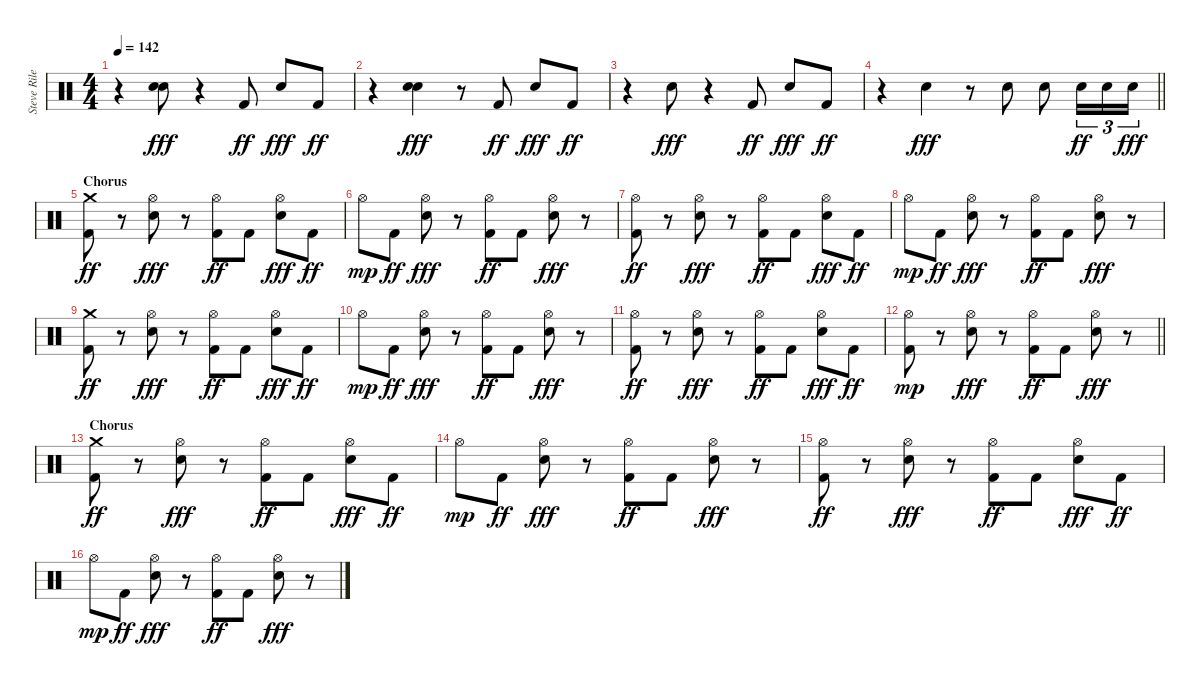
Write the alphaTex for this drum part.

\track ("Steve Riley" "Steve Rile") {instrument percussion}
\staff {score}
\articulation defaults
\ts (4 4)
\tempo 142
\clef neutral
\ks c
r.4{dy ff} ("Electric Snare (hit)" "Electric Snare (hit)").8{bd 60 dy fff} r.4 "Kick (hit) 2".8{dy ff} "Electric Snare (hit)".8{dy fff} "Kick (hit) 2".8{dy ff} |
r.4 ("Electric Snare (hit)" "Electric Snare (hit)").4{bd 60 dy fff} r.8 "Kick (hit) 2".8{dy ff} "Electric Snare (hit)".8{dy fff} "Kick (hit) 2".8{dy ff} |
r.4 "Electric Snare (hit)".8{dy fff} r.4 "Kick (hit) 2".8{dy ff} "Electric Snare (hit)".8{dy fff} "Kick (hit) 2".8{dy ff} |
\barLineRight lightlight
r.4 "Electric Snare (hit)".4{dy fff} r.8 "Electric Snare (hit)".8 "Electric Snare (hit)".8 "Electric Snare (hit)".16{tu (3 2) dy ff} "Electric Snare (hit)".16{tu (3 2)} "Electric Snare (hit)".16{tu (3 2) dy fff} |
\section ("" "Chorus")
("Crash medium (hit)" "Kick (hit) 2").8{dy ff} r.8 ("Hi-Hat (open)" "Electric Snare (hit)").8{dy fff} r.8 ("Hi-Hat (open)" "Kick (hit) 2").8{dy ff} "Kick (hit) 2".8 ("Hi-Hat (open)" "Electric Snare (hit)").8{dy fff} "Kick (hit) 2".8{dy ff} |
"Hi-Hat (open)".8{dy mp} "Kick (hit) 2".8{dy ff} ("Hi-Hat (open)" "Electric Snare (hit)").8{dy fff} r.8 ("Hi-Hat (open)" "Kick (hit) 2").8{dy ff} "Kick (hit) 2".8 ("Hi-Hat (open)" "Electric Snare (hit)").8{dy fff} r.8 |
("Hi-Hat (open)" "Kick (hit) 2").8{dy ff} r.8 ("Hi-Hat (open)" "Electric Snare (hit)").8{dy fff} r.8 ("Hi-Hat (open)" "Kick (hit) 2").8{dy ff} "Kick (hit) 2".8 ("Hi-Hat (open)" "Electric Snare (hit)").8{dy fff} "Kick (hit) 2".8{dy ff} |
"Hi-Hat (open)".8{dy mp} "Kick (hit) 2".8{dy ff} ("Hi-Hat (open)" "Electric Snare (hit)").8{dy fff} r.8 ("Hi-Hat (open)" "Kick (hit) 2").8{dy ff} "Kick (hit) 2".8 ("Hi-Hat (open)" "Electric Snare (hit)").8{dy fff} r.8 |
("Crash medium (hit)" "Kick (hit) 2").8{dy ff} r.8 ("Hi-Hat (open)" "Electric Snare (hit)").8{dy fff} r.8 ("Hi-Hat (open)" "Kick (hit) 2").8{dy ff} "Kick (hit) 2".8 ("Hi-Hat (open)" "Electric Snare (hit)").8{dy fff} "Kick (hit) 2".8{dy ff} |
"Hi-Hat (open)".8{dy mp} "Kick (hit) 2".8{dy ff} ("Hi-Hat (open)" "Electric Snare (hit)").8{dy fff} r.8 ("Hi-Hat (open)" "Kick (hit) 2").8{dy ff} "Kick (hit) 2".8 ("Hi-Hat (open)" "Electric Snare (hit)").8{dy fff} r.8 |
("Hi-Hat (open)" "Kick (hit) 2").8{dy ff} r.8 ("Hi-Hat (open)" "Electric Snare (hit)").8{dy fff} r.8 ("Hi-Hat (open)" "Kick (hit) 2").8{dy ff} "Kick (hit) 2".8 ("Hi-Hat (open)" "Electric Snare (hit)").8{dy fff} "Kick (hit) 2".8{dy ff} |
\barLineRight lightlight
("Hi-Hat (open)" "Kick (hit) 2").8{dy mp} r.8 ("Hi-Hat (open)" "Electric Snare (hit)").8{dy fff} r.8 ("Hi-Hat (open)" "Kick (hit) 2").8{dy ff} "Kick (hit) 2".8 ("Hi-Hat (open)" "Electric Snare (hit)").8{dy fff} r.8 |
\section ("" "Chorus")
("Crash medium (hit)" "Kick (hit) 2").8{dy ff} r.8 ("Hi-Hat (open)" "Electric Snare (hit)").8{dy fff} r.8 ("Hi-Hat (open)" "Kick (hit) 2").8{dy ff} "Kick (hit) 2".8 ("Hi-Hat (open)" "Electric Snare (hit)").8{dy fff} "Kick (hit) 2".8{dy ff} |
"Hi-Hat (open)".8{dy mp} "Kick (hit) 2".8{dy ff} ("Hi-Hat (open)" "Electric Snare (hit)").8{dy fff} r.8 ("Hi-Hat (open)" "Kick (hit) 2").8{dy ff} "Kick (hit) 2".8 ("Hi-Hat (open)" "Electric Snare (hit)").8{dy fff} r.8 |
("Hi-Hat (open)" "Kick (hit) 2").8{dy ff} r.8 ("Hi-Hat (open)" "Electric Snare (hit)").8{dy fff} r.8 ("Hi-Hat (open)" "Kick (hit) 2").8{dy ff} "Kick (hit) 2".8 ("Hi-Hat (open)" "Electric Snare (hit)").8{dy fff} "Kick (hit) 2".8{dy ff} |
"Hi-Hat (open)".8{dy mp} "Kick (hit) 2".8{dy ff} ("Hi-Hat (open)" "Electric Snare (hit)").8{dy fff} r.8 ("Hi-Hat (open)" "Kick (hit) 2").8{dy ff} "Kick (hit) 2".8 ("Hi-Hat (open)" "Electric Snare (hit)").8{dy fff} r.8
